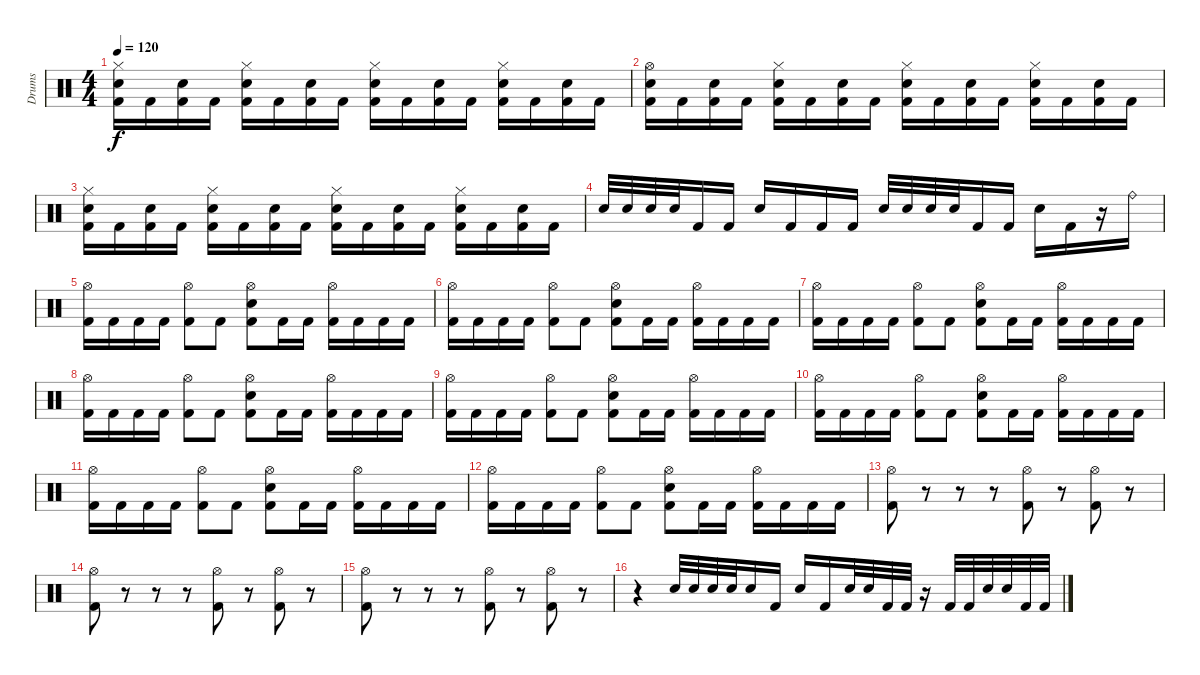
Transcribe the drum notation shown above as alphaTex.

\track ("Drums" "Drums") {instrument percussion}
\staff {score}
\articulation defaults
\ts (4 4)
\tempo 120
\clef neutral
\ks c
("Hi-Hat (closed)" "Snare (hit) 2" "Kick (hit) 2").16{dy f} "Kick (hit) 2".16 ("Snare (hit) 2" "Kick (hit) 2").16 "Kick (hit) 2".16 ("Hi-Hat (closed)" "Snare (hit) 2" "Kick (hit) 2").16 "Kick (hit) 2".16 ("Snare (hit) 2" "Kick (hit) 2").16 "Kick (hit) 2".16 ("Hi-Hat (closed)" "Snare (hit) 2" "Kick (hit) 2").16 "Kick (hit) 2".16 ("Snare (hit) 2" "Kick (hit) 2").16 "Kick (hit) 2".16 ("Hi-Hat (closed)" "Snare (hit) 2" "Kick (hit) 2").16 "Kick (hit) 2".16 ("Snare (hit) 2" "Kick (hit) 2").16 "Kick (hit) 2".16 |
("Hi-Hat (open)" "Snare (hit) 2" "Kick (hit) 2").16 "Kick (hit) 2".16 ("Snare (hit) 2" "Kick (hit) 2").16 "Kick (hit) 2".16 ("Hi-Hat (closed)" "Snare (hit) 2" "Kick (hit) 2").16 "Kick (hit) 2".16 ("Snare (hit) 2" "Kick (hit) 2").16 "Kick (hit) 2".16 ("Hi-Hat (closed)" "Snare (hit) 2" "Kick (hit) 2").16 "Kick (hit) 2".16 ("Snare (hit) 2" "Kick (hit) 2").16 "Kick (hit) 2".16 ("Hi-Hat (closed)" "Snare (hit) 2" "Kick (hit) 2").16 "Kick (hit) 2".16 ("Snare (hit) 2" "Kick (hit) 2").16 "Kick (hit) 2".16 |
("Hi-Hat (closed)" "Snare (hit) 2" "Kick (hit) 2").16 "Kick (hit) 2".16 ("Snare (hit) 2" "Kick (hit) 2").16 "Kick (hit) 2".16 ("Hi-Hat (closed)" "Snare (hit) 2" "Kick (hit) 2").16 "Kick (hit) 2".16 ("Snare (hit) 2" "Kick (hit) 2").16 "Kick (hit) 2".16 ("Hi-Hat (closed)" "Snare (hit) 2" "Kick (hit) 2").16 "Kick (hit) 2".16 ("Snare (hit) 2" "Kick (hit) 2").16 "Kick (hit) 2".16 ("Hi-Hat (closed)" "Snare (hit) 2" "Kick (hit) 2").16 "Kick (hit) 2".16 ("Snare (hit) 2" "Kick (hit) 2").16 "Kick (hit) 2".16 |
"Snare (hit) 2".32 "Snare (hit) 2".32 "Snare (hit) 2".32 "Snare (hit) 2".32 "Kick (hit) 2".16 "Kick (hit) 2".16 "Snare (hit) 2".16 "Kick (hit) 2".16 "Kick (hit) 2".16 "Kick (hit) 2".16 "Snare (hit) 2".32 "Snare (hit) 2".32 "Snare (hit) 2".32 "Snare (hit) 2".32 "Kick (hit) 2".16 "Kick (hit) 2".16 "Snare (hit) 2".16 "Kick (hit) 2".16 r.16 "Ride (bell)".16{volume 3} |
("Hi-Hat (open)" "Kick (hit) 2").16{volume 13} "Kick (hit) 2".16 "Kick (hit) 2".16 "Kick (hit) 2".16 ("Hi-Hat (open)" "Kick (hit) 2").8 "Kick (hit) 2".8 ("Hi-Hat (open)" "Snare (hit) 2" "Kick (hit) 2").8 "Kick (hit) 2".16 "Kick (hit) 2".16 ("Hi-Hat (open)" "Kick (hit) 2").16 "Kick (hit) 2".16 "Kick (hit) 2".16 "Kick (hit) 2".16 |
("Hi-Hat (open)" "Kick (hit) 2").16 "Kick (hit) 2".16 "Kick (hit) 2".16 "Kick (hit) 2".16 ("Hi-Hat (open)" "Kick (hit) 2").8 "Kick (hit) 2".8 ("Hi-Hat (open)" "Snare (hit) 2" "Kick (hit) 2").8 "Kick (hit) 2".16 "Kick (hit) 2".16 ("Hi-Hat (open)" "Kick (hit) 2").16 "Kick (hit) 2".16 "Kick (hit) 2".16 "Kick (hit) 2".16 |
("Hi-Hat (open)" "Kick (hit) 2").16 "Kick (hit) 2".16 "Kick (hit) 2".16 "Kick (hit) 2".16 ("Hi-Hat (open)" "Kick (hit) 2").8 "Kick (hit) 2".8 ("Hi-Hat (open)" "Snare (hit) 2" "Kick (hit) 2").8 "Kick (hit) 2".16 "Kick (hit) 2".16 ("Hi-Hat (open)" "Kick (hit) 2").16 "Kick (hit) 2".16 "Kick (hit) 2".16 "Kick (hit) 2".16 |
("Hi-Hat (open)" "Kick (hit) 2").16 "Kick (hit) 2".16 "Kick (hit) 2".16 "Kick (hit) 2".16 ("Hi-Hat (open)" "Kick (hit) 2").8 "Kick (hit) 2".8 ("Hi-Hat (open)" "Snare (hit) 2" "Kick (hit) 2").8 "Kick (hit) 2".16 "Kick (hit) 2".16 ("Hi-Hat (open)" "Kick (hit) 2").16 "Kick (hit) 2".16 "Kick (hit) 2".16 "Kick (hit) 2".16 |
("Hi-Hat (open)" "Kick (hit) 2").16 "Kick (hit) 2".16 "Kick (hit) 2".16 "Kick (hit) 2".16 ("Hi-Hat (open)" "Kick (hit) 2").8 "Kick (hit) 2".8 ("Hi-Hat (open)" "Snare (hit) 2" "Kick (hit) 2").8 "Kick (hit) 2".16 "Kick (hit) 2".16 ("Hi-Hat (open)" "Kick (hit) 2").16 "Kick (hit) 2".16 "Kick (hit) 2".16 "Kick (hit) 2".16 |
("Hi-Hat (open)" "Kick (hit) 2").16 "Kick (hit) 2".16 "Kick (hit) 2".16 "Kick (hit) 2".16 ("Hi-Hat (open)" "Kick (hit) 2").8 "Kick (hit) 2".8 ("Hi-Hat (open)" "Snare (hit) 2" "Kick (hit) 2").8 "Kick (hit) 2".16 "Kick (hit) 2".16 ("Hi-Hat (open)" "Kick (hit) 2").16 "Kick (hit) 2".16 "Kick (hit) 2".16 "Kick (hit) 2".16 |
("Hi-Hat (open)" "Kick (hit) 2").16 "Kick (hit) 2".16 "Kick (hit) 2".16 "Kick (hit) 2".16 ("Hi-Hat (open)" "Kick (hit) 2").8 "Kick (hit) 2".8 ("Hi-Hat (open)" "Snare (hit) 2" "Kick (hit) 2").8 "Kick (hit) 2".16 "Kick (hit) 2".16 ("Hi-Hat (open)" "Kick (hit) 2").16 "Kick (hit) 2".16 "Kick (hit) 2".16 "Kick (hit) 2".16 |
("Hi-Hat (open)" "Kick (hit) 2").16 "Kick (hit) 2".16 "Kick (hit) 2".16 "Kick (hit) 2".16 ("Hi-Hat (open)" "Kick (hit) 2").8 "Kick (hit) 2".8 ("Hi-Hat (open)" "Snare (hit) 2" "Kick (hit) 2").8 "Kick (hit) 2".16 "Kick (hit) 2".16 ("Hi-Hat (open)" "Kick (hit) 2").16 "Kick (hit) 2".16 "Kick (hit) 2".16 "Kick (hit) 2".16 |
("Hi-Hat (open)" "Kick (hit) 2").8 r.8 r.8 r.8 ("Hi-Hat (open)" "Kick (hit) 2").8 r.8 ("Hi-Hat (open)" "Kick (hit) 2").8 r.8 |
("Hi-Hat (open)" "Kick (hit) 2").8 r.8 r.8 r.8 ("Hi-Hat (open)" "Kick (hit) 2").8 r.8 ("Hi-Hat (open)" "Kick (hit) 2").8 r.8 |
("Hi-Hat (open)" "Kick (hit) 2").8 r.8 r.8 r.8 ("Hi-Hat (open)" "Kick (hit) 2").8 r.8 ("Hi-Hat (open)" "Kick (hit) 2").8 r.8 |
r.4 "Snare (hit) 2".32 "Snare (hit) 2".32 "Snare (hit) 2".32 "Snare (hit) 2".32 "Snare (hit) 2".16 "Kick (hit) 2".16 "Snare (hit) 2".16 "Kick (hit) 2".16 "Snare (hit) 2".32 "Snare (hit) 2".32 "Kick (hit) 2".32 "Kick (hit) 2".32 r.16 "Kick (hit) 2".32 "Kick (hit) 2".32 "Snare (hit) 2".32 "Snare (hit) 2".32 "Kick (hit) 2".32 "Kick (hit) 2".32
